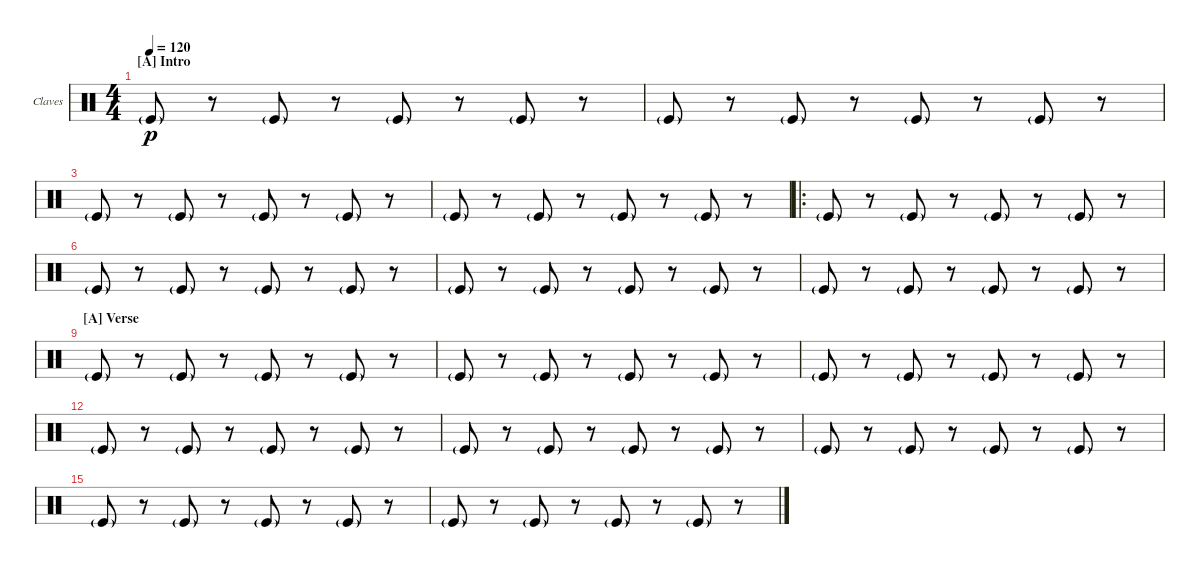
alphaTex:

\bracketExtendMode nobrackets
\firstSystemTrackNameOrientation horizontal
\otherSystemsTrackNameOrientation horizontal
\defaultBarNumberDisplay FirstOfSystem
\track ("Claves" "Claves") {instrument percussion}
\staff {score}
\articulation defaults
\ts (4 4)
\section ("A" "Intro")
\scale
0.297071
\tempo 120
\accidentals auto
\clef neutral
\ottava regular
\simile none
\scale
0.309735
\ks c "Kick (hit)"{g}.8{dy p}
r.8 "Kick (hit)"{g}.8 r.8 "Kick (hit)"{g}.8 r.8 "Kick (hit)"{g}.8 r.8 |
\scale
0.233273
\scale
0.230088 "Kick (hit)"{g}.8 r.8 "Kick (hit)"{g}.8 r.8 "Kick (hit)"{g}.8 r.8 "Kick (hit)"{g}.8 r.8 |
\scale
0.235914
\scale
0.230088 "Kick (hit)"{g}.8 r.8 "Kick (hit)"{g}.8 r.8 "Kick (hit)"{g}.8 r.8 "Kick (hit)"{g}.8 r.8 |
\scale
0.23431
\scale
0.230088 "Kick (hit)"{g}.8 r.8 "Kick (hit)"{g}.8 r.8 "Kick (hit)"{g}.8 r.8 "Kick (hit)"{g}.8 r.8 |
\ro
\scale
0.25
\scale
0.240741 "Kick (hit)"{g}.8 r.8 "Kick (hit)"{g}.8 r.8 "Kick (hit)"{g}.8 r.8 "Kick (hit)"{g}.8 r.8 |
\scale
0.25
\scale
0.240741 "Kick (hit)"{g}.8 r.8 "Kick (hit)"{g}.8 r.8 "Kick (hit)"{g}.8 r.8 "Kick (hit)"{g}.8 r.8 |
\scale
0.25
\scale
0.277778 "Kick (hit)"{g}.8 r.8 "Kick (hit)"{g}.8 r.8 "Kick (hit)"{g}.8 r.8 "Kick (hit)"{g}.8 r.8 |
\scale
0.25
\scale
0.240741 "Kick (hit)"{g}.8 r.8 "Kick (hit)"{g}.8 r.8 "Kick (hit)"{g}.8 r.8 "Kick (hit)"{g}.8 r.8 |
\section ("A" "Verse")
\scale
0.25
\scale
0.245283 "Kick (hit)"{g}.8 r.8 "Kick (hit)"{g}.8 r.8 "Kick (hit)"{g}.8 r.8 "Kick (hit)"{g}.8 r.8 |
\scale
0.25
\scale
0.245283 "Kick (hit)"{g}.8 r.8 "Kick (hit)"{g}.8 r.8 "Kick (hit)"{g}.8 r.8 "Kick (hit)"{g}.8 r.8 |
\scale
0.25
\scale
0.264151 "Kick (hit)"{g}.8 r.8 "Kick (hit)"{g}.8 r.8 "Kick (hit)"{g}.8 r.8 "Kick (hit)"{g}.8 r.8 |
\scale
0.25
\scale
0.245283 "Kick (hit)"{g}.8 r.8 "Kick (hit)"{g}.8 r.8 "Kick (hit)"{g}.8 r.8 "Kick (hit)"{g}.8 r.8 |
\scale
0.25
\scale
0.277778 "Kick (hit)"{g}.8 r.8 "Kick (hit)"{g}.8 r.8 "Kick (hit)"{g}.8 r.8 "Kick (hit)"{g}.8 r.8 |
\scale
0.25
\scale
0.240741 "Kick (hit)"{g}.8 r.8 "Kick (hit)"{g}.8 r.8 "Kick (hit)"{g}.8 r.8 "Kick (hit)"{g}.8 r.8 |
\scale
0.25
\scale
0.240741 "Kick (hit)"{g}.8 r.8 "Kick (hit)"{g}.8 r.8 "Kick (hit)"{g}.8 r.8 "Kick (hit)"{g}.8 r.8 |
\scale
0.25
\scale
0.240741 "Kick (hit)"{g}.8 r.8 "Kick (hit)"{g}.8 r.8 "Kick (hit)"{g}.8 r.8 "Kick (hit)"{g}.8 r.8
